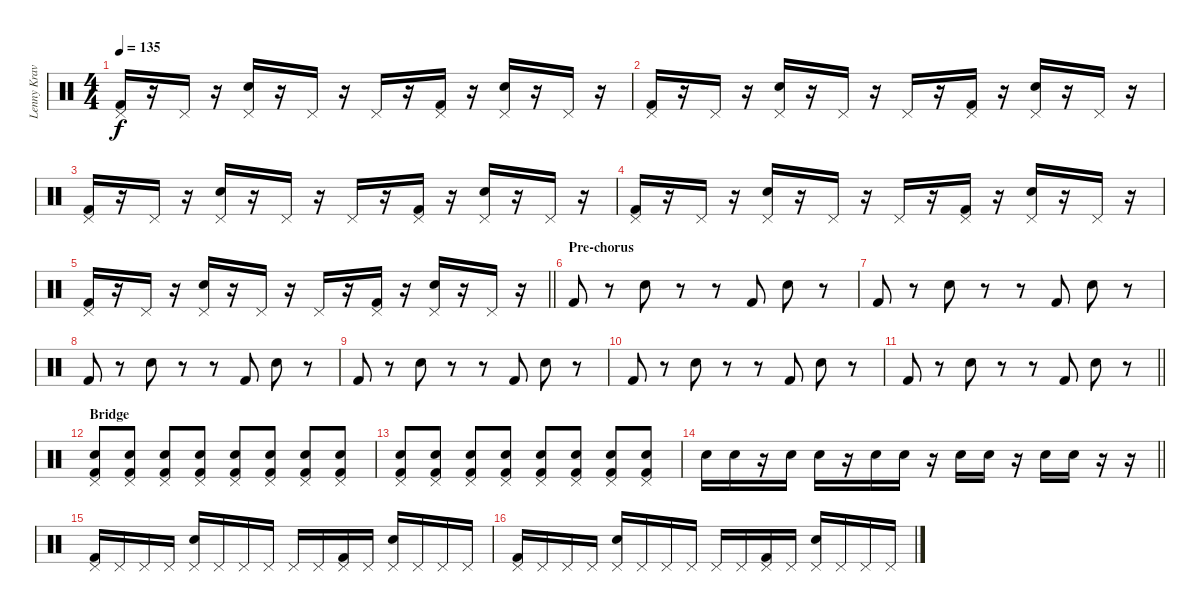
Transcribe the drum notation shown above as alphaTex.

\track ("Lenny Kravitz (drums)" "Lenny Krav") {instrument percussion}
\staff {score}
\articulation defaults
\ts (4 4)
\tempo 135
\clef neutral
\ks c
("Pedal Hi-Hat (hit)" "Kick (hit) 2").16{dy f} r.16 "Pedal Hi-Hat (hit)".16 r.16 ("Pedal Hi-Hat (hit)" "Electric Snare (hit)").16 r.16 "Pedal Hi-Hat (hit)".16 r.16 "Pedal Hi-Hat (hit)".16 r.16 ("Pedal Hi-Hat (hit)" "Kick (hit) 2").16 r.16 ("Pedal Hi-Hat (hit)" "Electric Snare (hit)").16 r.16 "Pedal Hi-Hat (hit)".16 r.16 |
("Pedal Hi-Hat (hit)" "Kick (hit) 2").16 r.16 "Pedal Hi-Hat (hit)".16 r.16 ("Pedal Hi-Hat (hit)" "Electric Snare (hit)").16 r.16 "Pedal Hi-Hat (hit)".16 r.16 "Pedal Hi-Hat (hit)".16 r.16 ("Pedal Hi-Hat (hit)" "Kick (hit) 2").16 r.16 ("Pedal Hi-Hat (hit)" "Electric Snare (hit)").16 r.16 "Pedal Hi-Hat (hit)".16 r.16 |
("Pedal Hi-Hat (hit)" "Kick (hit) 2").16 r.16 "Pedal Hi-Hat (hit)".16 r.16 ("Pedal Hi-Hat (hit)" "Electric Snare (hit)").16 r.16 "Pedal Hi-Hat (hit)".16 r.16 "Pedal Hi-Hat (hit)".16 r.16 ("Pedal Hi-Hat (hit)" "Kick (hit) 2").16 r.16 ("Pedal Hi-Hat (hit)" "Electric Snare (hit)").16 r.16 "Pedal Hi-Hat (hit)".16 r.16 |
("Pedal Hi-Hat (hit)" "Kick (hit) 2").16 r.16 "Pedal Hi-Hat (hit)".16 r.16 ("Pedal Hi-Hat (hit)" "Electric Snare (hit)").16 r.16 "Pedal Hi-Hat (hit)".16 r.16 "Pedal Hi-Hat (hit)".16 r.16 ("Pedal Hi-Hat (hit)" "Kick (hit) 2").16 r.16 ("Pedal Hi-Hat (hit)" "Electric Snare (hit)").16 r.16 "Pedal Hi-Hat (hit)".16 r.16 |
\barLineRight lightlight
("Pedal Hi-Hat (hit)" "Kick (hit) 2").16 r.16 "Pedal Hi-Hat (hit)".16 r.16 ("Pedal Hi-Hat (hit)" "Electric Snare (hit)").16 r.16 "Pedal Hi-Hat (hit)".16 r.16 "Pedal Hi-Hat (hit)".16 r.16 ("Pedal Hi-Hat (hit)" "Kick (hit) 2").16 r.16 ("Pedal Hi-Hat (hit)" "Electric Snare (hit)").16 r.16 "Pedal Hi-Hat (hit)".16 r.16 |
\section ("" "Pre-chorus")
"Kick (hit) 2".8 r.8 "Electric Snare (hit)".8 r.8 r.8 "Kick (hit) 2".8 "Electric Snare (hit)".8 r.8 |
"Kick (hit) 2".8 r.8 "Electric Snare (hit)".8 r.8 r.8 "Kick (hit) 2".8 "Electric Snare (hit)".8 r.8 |
"Kick (hit) 2".8 r.8 "Electric Snare (hit)".8 r.8 r.8 "Kick (hit) 2".8 "Electric Snare (hit)".8 r.8 |
"Kick (hit) 2".8 r.8 "Electric Snare (hit)".8 r.8 r.8 "Kick (hit) 2".8 "Electric Snare (hit)".8 r.8 |
"Kick (hit) 2".8 r.8 "Electric Snare (hit)".8 r.8 r.8 "Kick (hit) 2".8 "Electric Snare (hit)".8 r.8 |
\barLineRight lightlight "Kick (hit) 2".8
r.8 "Electric Snare (hit)".8 r.8 r.8 "Kick (hit) 2".8 "Electric Snare (hit)".8 r.8 |
\section ("" "Bridge")
("Pedal Hi-Hat (hit)" "Electric Snare (hit)" "Kick (hit) 2").8 ("Pedal Hi-Hat (hit)" "Electric Snare (hit)" "Kick (hit) 2").8 ("Pedal Hi-Hat (hit)" "Electric Snare (hit)" "Kick (hit) 2").8 ("Pedal Hi-Hat (hit)" "Electric Snare (hit)" "Kick (hit) 2").8 ("Pedal Hi-Hat (hit)" "Electric Snare (hit)" "Kick (hit) 2").8 ("Pedal Hi-Hat (hit)" "Electric Snare (hit)" "Kick (hit) 2").8 ("Pedal Hi-Hat (hit)" "Electric Snare (hit)" "Kick (hit) 2").8 ("Pedal Hi-Hat (hit)" "Electric Snare (hit)" "Kick (hit) 2").8 |
("Pedal Hi-Hat (hit)" "Electric Snare (hit)" "Kick (hit) 2").8 ("Pedal Hi-Hat (hit)" "Electric Snare (hit)" "Kick (hit) 2").8 ("Pedal Hi-Hat (hit)" "Electric Snare (hit)" "Kick (hit) 2").8 ("Pedal Hi-Hat (hit)" "Electric Snare (hit)" "Kick (hit) 2").8 ("Pedal Hi-Hat (hit)" "Electric Snare (hit)" "Kick (hit) 2").8 ("Pedal Hi-Hat (hit)" "Electric Snare (hit)" "Kick (hit) 2").8 ("Pedal Hi-Hat (hit)" "Electric Snare (hit)" "Kick (hit) 2").8 ("Pedal Hi-Hat (hit)" "Electric Snare (hit)" "Kick (hit) 2").8 |
\barLineRight lightlight "Electric Snare (hit)".16 "Electric Snare (hit)".16
r.16 "Electric Snare (hit)".16 "Electric Snare (hit)".16 r.16 "Electric Snare (hit)".16 "Electric Snare (hit)".16 r.16 "Electric Snare (hit)".16 "Electric Snare (hit)".16 r.16 "Electric Snare (hit)".16 "Electric Snare (hit)".16 r.16 r.16 |
("Pedal Hi-Hat (hit)" "Kick (hit) 2").16 "Pedal Hi-Hat (hit)".16 "Pedal Hi-Hat (hit)".16 "Pedal Hi-Hat (hit)".16 ("Pedal Hi-Hat (hit)" "Electric Snare (hit)").16 "Pedal Hi-Hat (hit)".16 "Pedal Hi-Hat (hit)".16 "Pedal Hi-Hat (hit)".16 "Pedal Hi-Hat (hit)".16 "Pedal Hi-Hat (hit)".16 ("Pedal Hi-Hat (hit)" "Kick (hit) 2").16 "Pedal Hi-Hat (hit)".16 ("Pedal Hi-Hat (hit)" "Electric Snare (hit)").16 "Pedal Hi-Hat (hit)".16 "Pedal Hi-Hat (hit)".16 "Pedal Hi-Hat (hit)".16 |
("Pedal Hi-Hat (hit)" "Kick (hit) 2").16 "Pedal Hi-Hat (hit)".16 "Pedal Hi-Hat (hit)".16 "Pedal Hi-Hat (hit)".16 ("Pedal Hi-Hat (hit)" "Electric Snare (hit)").16 "Pedal Hi-Hat (hit)".16 "Pedal Hi-Hat (hit)".16 "Pedal Hi-Hat (hit)".16 "Pedal Hi-Hat (hit)".16 "Pedal Hi-Hat (hit)".16 ("Pedal Hi-Hat (hit)" "Kick (hit) 2").16 "Pedal Hi-Hat (hit)".16 ("Pedal Hi-Hat (hit)" "Electric Snare (hit)").16 "Pedal Hi-Hat (hit)".16 "Pedal Hi-Hat (hit)".16 "Pedal Hi-Hat (hit)".16
